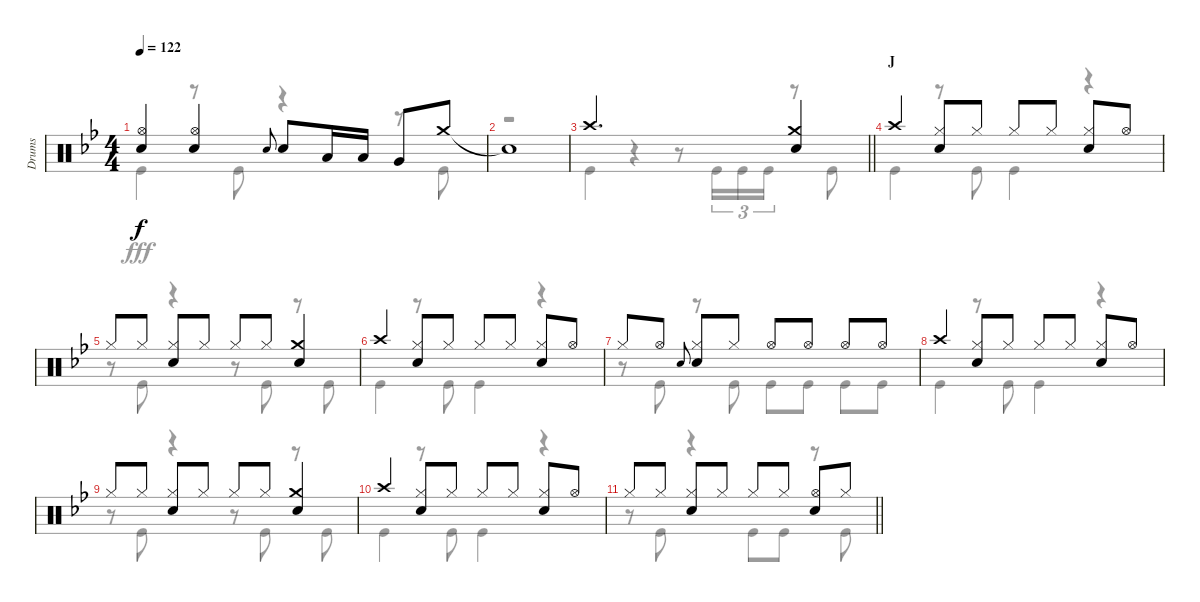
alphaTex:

\track ("Drums" "Drums") {instrument percussion}
\staff {score}
\articulation defaults
\voice
\ts (4 4)
\tempo 122
\clef neutral
\ks bb
("Hi-Hat (open)" "Snare (hit) 2").4{dy f} ("Hi-Hat (open)" "Snare (hit) 2").4 "Snare (hit) 2".8{gr onbeat} "Snare (hit) 2".8 "Low Tom (hit)".16 "Low Tom (hit)".16 "Very Low Tom (hit)".8 "Crash medium (hit)".8 |
"Snare (hit)"{t}.1 |
\barLineRight lightlight "Crash high (hit)".2{d}
("Crash medium (hit)" "Snare (hit) 2").4 |
\section ("" "J")
"Crash high (hit)".4 ("Hi-Hat (closed)" "Snare (hit) 2").8 "Hi-Hat (closed)".8 "Hi-Hat (closed)".8 "Hi-Hat (closed)".8 ("Hi-Hat (closed)" "Snare (hit) 2").8 "Hi-Hat (open)".8 |
"Hi-Hat (closed)".8 "Hi-Hat (closed)".8 ("Hi-Hat (closed)" "Snare (hit) 2").8 "Hi-Hat (closed)".8 "Hi-Hat (closed)".8 "Hi-Hat (closed)".8 ("Crash medium (hit)" "Snare (hit) 2").4 |
"Crash high (hit)".4 ("Hi-Hat (closed)" "Snare (hit) 2").8 "Hi-Hat (closed)".8 "Hi-Hat (closed)".8 "Hi-Hat (closed)".8 ("Hi-Hat (closed)" "Snare (hit) 2").8 "Hi-Hat (open)".8 |
"Hi-Hat (closed)".8 "Hi-Hat (open)".8 "Snare (hit) 2".8{gr onbeat} ("Hi-Hat (closed)" "Snare (hit) 2").8 "Hi-Hat (closed)".8 "Hi-Hat (open)".8 "Hi-Hat (open)".8 "Hi-Hat (open)".8 "Hi-Hat (open)".8 |
"Crash high (hit)".4 ("Hi-Hat (closed)" "Snare (hit) 2").8 "Hi-Hat (closed)".8 "Hi-Hat (closed)".8 "Hi-Hat (closed)".8 ("Hi-Hat (closed)" "Snare (hit) 2").8 "Hi-Hat (open)".8 |
"Hi-Hat (closed)".8 "Hi-Hat (closed)".8 ("Hi-Hat (closed)" "Snare (hit) 2").8 "Hi-Hat (closed)".8 "Hi-Hat (closed)".8 "Hi-Hat (closed)".8 ("Crash medium (hit)" "Snare (hit) 2").4 |
"Crash high (hit)".4 ("Hi-Hat (closed)" "Snare (hit) 2").8 "Hi-Hat (closed)".8 "Hi-Hat (closed)".8 "Hi-Hat (closed)".8 ("Hi-Hat (closed)" "Snare (hit) 2").8 "Hi-Hat (open)".8 |
\barLineRight lightlight "Hi-Hat (closed)".8 "Hi-Hat (closed)".8
("Hi-Hat (closed)" "Snare (hit) 2").8 "Hi-Hat (closed)".8 "Hi-Hat (closed)".8 "Hi-Hat (closed)".8 ("Hi-Hat (open)" "Snare (hit) 2").8 "Hi-Hat (closed)".8
\voice
\clef neutral
\ottava regular
\simile none
\ks bb "Kick (hit)".4{dy fff}
r.8 "Kick (hit)".8 r.4 r.8 "Kick (hit)".8 |
r.1 |
\barLineRight lightlight "Kick (hit)".4
r.4 r.8 "Kick (hit)".16{tu (3 2)} "Kick (hit)".16{tu (3 2)} "Kick (hit)".16{tu (3 2)} r.8 "Kick (hit)".8 |
"Kick (hit)".4 r.8 "Kick (hit)".8 "Kick (hit)".4 r.4 |
r.8 "Kick (hit)".8 r.4 r.8 "Kick (hit)".8 r.8 "Kick (hit)".8 |
"Kick (hit)".4 r.8 "Kick (hit)".8 "Kick (hit)".4 r.4 |
r.8 "Kick (hit)".8 r.8 "Kick (hit)".8 "Kick (hit)".8 "Kick (hit)".8 "Kick (hit)".8 "Kick (hit)".8 |
"Kick (hit)".4 r.8 "Kick (hit)".8 "Kick (hit)".4 r.4 |
r.8 "Kick (hit)".8 r.4 r.8 "Kick (hit)".8 r.8 "Kick (hit)".8 |
"Kick (hit)".4 r.8 "Kick (hit)".8 "Kick (hit)".4 r.4 |
\barLineRight lightlight
r.8 "Kick (hit)".8 r.4 "Kick (hit)".8 "Kick (hit)".8 r.8 "Kick (hit)".8
